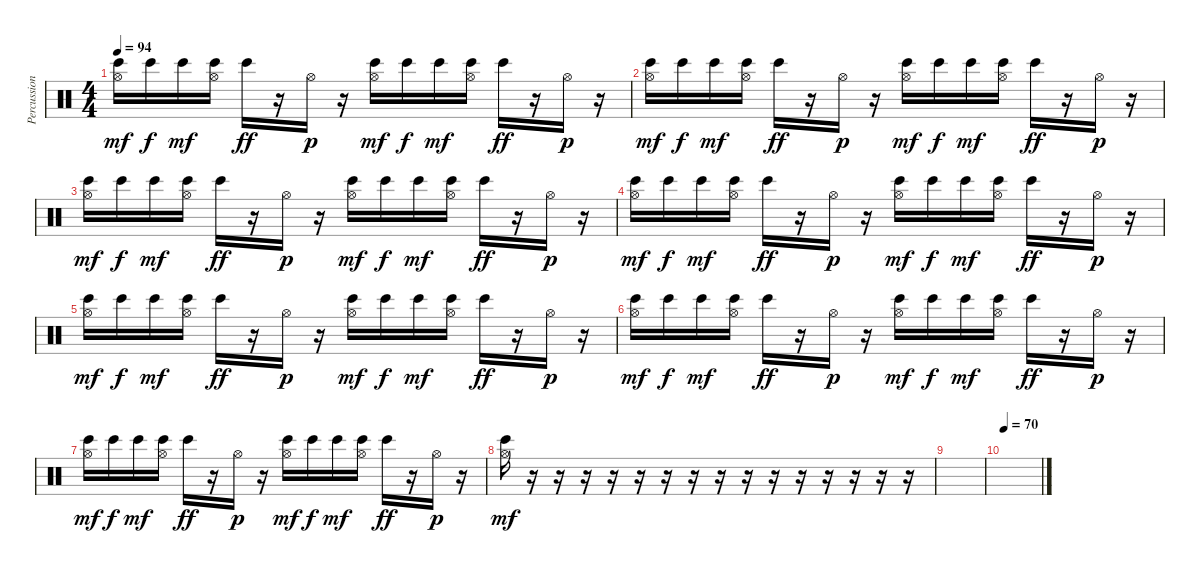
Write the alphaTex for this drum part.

\track ("Percussion Effekt" "Percussion") {instrument percussion}
\staff {score}
\articulation defaults
\ts (4 4)
\tempo 94
\clef neutral
\ks c
("Hi-Hat (open)" "Bongo High (hit)").16{dy mf} "Bongo High (hit)".16{dy f} "Bongo High (hit)".16{dy mf} ("Hi-Hat (open)" "Bongo High (hit)").16 "Bongo High (hit)".16{dy ff} r.16 "Hi-Hat (open)".16{dy p} r.16 ("Hi-Hat (open)" "Bongo High (hit)").16{dy mf} "Bongo High (hit)".16{dy f} "Bongo High (hit)".16{dy mf} ("Hi-Hat (open)" "Bongo High (hit)").16 "Bongo High (hit)".16{dy ff} r.16 "Hi-Hat (open)".16{dy p} r.16 |
("Hi-Hat (open)" "Bongo High (hit)").16{dy mf} "Bongo High (hit)".16{dy f} "Bongo High (hit)".16{dy mf} ("Hi-Hat (open)" "Bongo High (hit)").16 "Bongo High (hit)".16{dy ff} r.16 "Hi-Hat (open)".16{dy p} r.16 ("Hi-Hat (open)" "Bongo High (hit)").16{dy mf} "Bongo High (hit)".16{dy f} "Bongo High (hit)".16{dy mf} ("Hi-Hat (open)" "Bongo High (hit)").16 "Bongo High (hit)".16{dy ff} r.16 "Hi-Hat (open)".16{dy p} r.16 |
("Hi-Hat (open)" "Bongo High (hit)").16{dy mf} "Bongo High (hit)".16{dy f} "Bongo High (hit)".16{dy mf} ("Hi-Hat (open)" "Bongo High (hit)").16 "Bongo High (hit)".16{dy ff} r.16 "Hi-Hat (open)".16{dy p} r.16 ("Hi-Hat (open)" "Bongo High (hit)").16{dy mf} "Bongo High (hit)".16{dy f} "Bongo High (hit)".16{dy mf} ("Hi-Hat (open)" "Bongo High (hit)").16 "Bongo High (hit)".16{dy ff} r.16 "Hi-Hat (open)".16{dy p} r.16 |
("Hi-Hat (open)" "Bongo High (hit)").16{dy mf} "Bongo High (hit)".16{dy f} "Bongo High (hit)".16{dy mf} ("Hi-Hat (open)" "Bongo High (hit)").16 "Bongo High (hit)".16{dy ff} r.16 "Hi-Hat (open)".16{dy p} r.16 ("Hi-Hat (open)" "Bongo High (hit)").16{dy mf} "Bongo High (hit)".16{dy f} "Bongo High (hit)".16{dy mf} ("Hi-Hat (open)" "Bongo High (hit)").16 "Bongo High (hit)".16{dy ff} r.16 "Hi-Hat (open)".16{dy p} r.16 |
("Hi-Hat (open)" "Bongo High (hit)").16{dy mf} "Bongo High (hit)".16{dy f} "Bongo High (hit)".16{dy mf} ("Hi-Hat (open)" "Bongo High (hit)").16 "Bongo High (hit)".16{dy ff} r.16 "Hi-Hat (open)".16{dy p} r.16 ("Hi-Hat (open)" "Bongo High (hit)").16{dy mf} "Bongo High (hit)".16{dy f} "Bongo High (hit)".16{dy mf} ("Hi-Hat (open)" "Bongo High (hit)").16 "Bongo High (hit)".16{dy ff} r.16 "Hi-Hat (open)".16{dy p} r.16 |
("Hi-Hat (open)" "Bongo High (hit)").16{dy mf} "Bongo High (hit)".16{dy f} "Bongo High (hit)".16{dy mf} ("Hi-Hat (open)" "Bongo High (hit)").16 "Bongo High (hit)".16{dy ff} r.16 "Hi-Hat (open)".16{dy p} r.16 ("Hi-Hat (open)" "Bongo High (hit)").16{dy mf} "Bongo High (hit)".16{dy f} "Bongo High (hit)".16{dy mf} ("Hi-Hat (open)" "Bongo High (hit)").16 "Bongo High (hit)".16{dy ff} r.16 "Hi-Hat (open)".16{dy p} r.16 |
("Hi-Hat (open)" "Bongo High (hit)").16{dy mf} "Bongo High (hit)".16{dy f} "Bongo High (hit)".16{dy mf} ("Hi-Hat (open)" "Bongo High (hit)").16 "Bongo High (hit)".16{dy ff} r.16 "Hi-Hat (open)".16{dy p} r.16 ("Hi-Hat (open)" "Bongo High (hit)").16{dy mf} "Bongo High (hit)".16{dy f} "Bongo High (hit)".16{dy mf} ("Hi-Hat (open)" "Bongo High (hit)").16 "Bongo High (hit)".16{dy ff} r.16 "Hi-Hat (open)".16{dy p} r.16 |
("Hi-Hat (open)" "Bongo High (hit)").16{dy mf} r.16 r.16 r.16 r.16 r.16 r.16 r.16 r.16 r.16 r.16 r.16 r.16 r.16 r.16 r.16 |
|
\tempo 70
